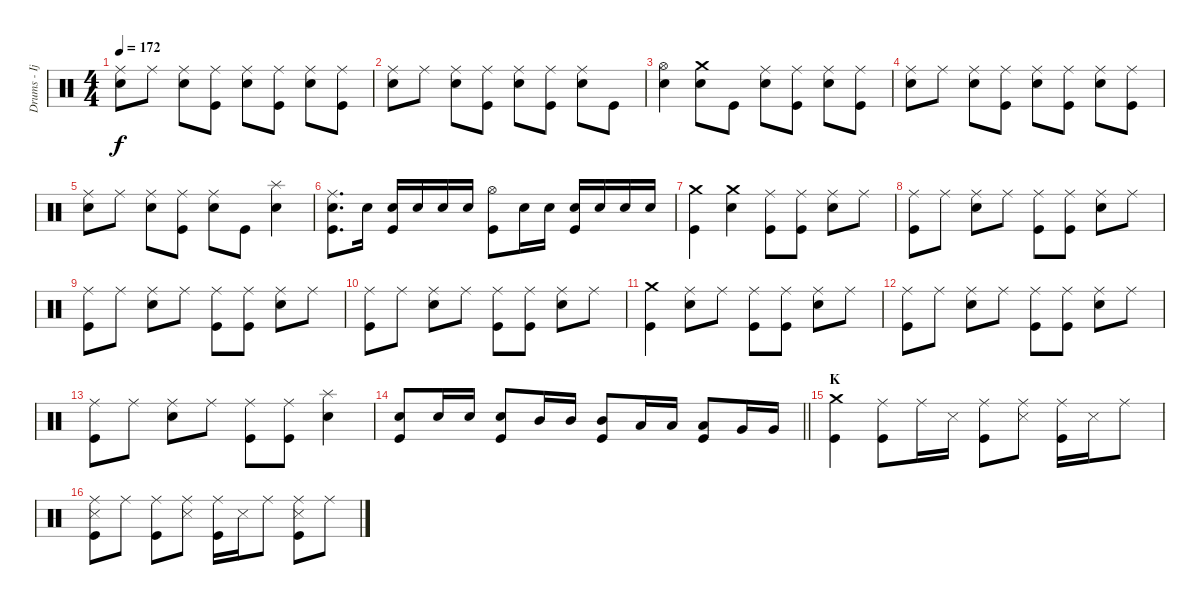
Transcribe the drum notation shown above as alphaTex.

\track ("Drums - Ijichi" "Drums - Ij") {instrument percussion}
\staff {score}
\articulation defaults
\ts (4 4)
\tempo 172
\clef neutral
\ks c
("Ride (middle)" "Electric Snare (hit)").8{dy f} "Ride (middle)".8 ("Ride (middle)" "Electric Snare (hit)").8 ("Ride (middle)" "Kick (hit)").8 ("Ride (middle)" "Electric Snare (hit)").8 ("Ride (middle)" "Kick (hit)").8 ("Ride (middle)" "Electric Snare (hit)").8 ("Ride (middle)" "Kick (hit)").8 |
("Ride (middle)" "Electric Snare (hit)").8 "Ride (middle)".8 ("Ride (middle)" "Electric Snare (hit)").8 ("Ride (middle)" "Kick (hit)").8 ("Ride (middle)" "Electric Snare (hit)").8 ("Ride (middle)" "Kick (hit)").8 ("Ride (middle)" "Electric Snare (hit)").8 "Kick (hit)".8 |
("Hi-Hat (open)" "Electric Snare (hit)").4 ("Crash medium (hit)" "Electric Snare (hit)").8 "Kick (hit)".8 ("Ride (middle)" "Electric Snare (hit)").8 ("Ride (middle)" "Kick (hit)").8 ("Ride (middle)" "Electric Snare (hit)").8 ("Ride (middle)" "Kick (hit)").8 |
("Ride (middle)" "Electric Snare (hit)").8 "Ride (middle)".8 ("Ride (middle)" "Electric Snare (hit)").8 ("Ride (middle)" "Kick (hit)").8 ("Ride (middle)" "Electric Snare (hit)").8 ("Ride (middle)" "Kick (hit)").8 ("Ride (middle)" "Electric Snare (hit)").8 ("Ride (middle)" "Kick (hit)").8 |
("Ride (middle)" "Electric Snare (hit)").8 "Ride (middle)".8 ("Ride (middle)" "Electric Snare (hit)").8 ("Ride (middle)" "Kick (hit)").8 ("Ride (middle)" "Electric Snare (hit)").8 "Kick (hit)".8 ("Splash (hit)" "Electric Snare (hit)").4 |
("Ride (middle)" "Electric Snare (hit)" "Kick (hit)").8{d} "Electric Snare (hit)".16 ("Electric Snare (hit)" "Kick (hit)").16 "Electric Snare (hit)".16 "Electric Snare (hit)".16 "Electric Snare (hit)".16 ("Hi-Hat (open)" "Kick (hit)").8 "Electric Snare (hit)".16 "Electric Snare (hit)".16 ("Electric Snare (hit)" "Kick (hit)").16 "Electric Snare (hit)".16 "Electric Snare (hit)".16 "Electric Snare (hit)".16 |
("Crash medium (hit)" "Kick (hit)").4 ("Crash medium (hit)" "Electric Snare (hit)").4 ("Ride (middle)" "Kick (hit)").8 ("Ride (middle)" "Kick (hit)").8 ("Ride (middle)" "Electric Snare (hit)").8 "Ride (middle)".8 |
("Ride (middle)" "Kick (hit)").8 "Ride (middle)".8 ("Ride (middle)" "Electric Snare (hit)").8 "Ride (middle)".8 ("Ride (middle)" "Kick (hit)").8 ("Ride (middle)" "Kick (hit)").8 ("Ride (middle)" "Electric Snare (hit)").8 "Ride (middle)".8 |
("Ride (middle)" "Kick (hit)").8 "Ride (middle)".8 ("Ride (middle)" "Electric Snare (hit)").8 "Ride (middle)".8 ("Ride (middle)" "Kick (hit)").8 ("Ride (middle)" "Kick (hit)").8 ("Ride (middle)" "Electric Snare (hit)").8 "Ride (middle)".8 |
("Ride (middle)" "Kick (hit)").8 "Ride (middle)".8 ("Ride (middle)" "Electric Snare (hit)").8 "Ride (middle)".8 ("Ride (middle)" "Kick (hit)").8 ("Ride (middle)" "Kick (hit)").8 ("Ride (middle)" "Electric Snare (hit)").8 "Ride (middle)".8 |
("Crash medium (hit)" "Kick (hit)").4 ("Ride (middle)" "Electric Snare (hit)").8 "Ride (middle)".8 ("Ride (middle)" "Kick (hit)").8 ("Ride (middle)" "Kick (hit)").8 ("Ride (middle)" "Electric Snare (hit)").8 "Ride (middle)".8 |
("Ride (middle)" "Kick (hit)").8 "Ride (middle)".8 ("Ride (middle)" "Electric Snare (hit)").8 "Ride (middle)".8 ("Ride (middle)" "Kick (hit)").8 ("Ride (middle)" "Kick (hit)").8 ("Ride (middle)" "Electric Snare (hit)").8 "Ride (middle)".8 |
("Ride (middle)" "Kick (hit)").8 "Ride (middle)".8 ("Ride (middle)" "Electric Snare (hit)").8 "Ride (middle)".8 ("Ride (middle)" "Kick (hit)").8 ("Ride (middle)" "Kick (hit)").8 ("Splash (hit)" "Electric Snare (hit)").4 |
\barLineRight lightlight
("Electric Snare (hit)" "Kick (hit)").8 "Electric Snare (hit)".16 "Electric Snare (hit)".16 ("Electric Snare (hit)" "Kick (hit)").8 "Mid Tom (hit)".16 "Mid Tom (hit)".16 ("Mid Tom (hit)" "Kick (hit)").8 "Low Tom (hit)".16 "Low Tom (hit)".16 ("Low Tom (hit)" "Kick (hit)").8 "Very Low Tom (hit)".16 "Very Low Tom (hit)".16 |
\section ("" "K")
("Crash medium (hit)" "Kick (hit)").4 ("Ride (middle)" "Kick (hit)").8 "Ride (middle)".16 "Snare (side stick) 3".16 ("Ride (middle)" "Kick (hit)").8 ("Ride (middle)" "Snare (side stick) 3").8 ("Ride (middle)" "Kick (hit)").16 "Snare (side stick) 3".16 "Ride (middle)".8 |
("Ride (middle)" "Snare (side stick) 3" "Kick (hit)").8 "Ride (middle)".8 ("Ride (middle)" "Kick (hit)").8 ("Ride (middle)" "Snare (side stick) 3").8 ("Ride (middle)" "Kick (hit)").16 "Snare (side stick) 3".16 "Ride (middle)".8 ("Ride (middle)" "Snare (side stick) 3" "Kick (hit)").8 "Ride (middle)".8
